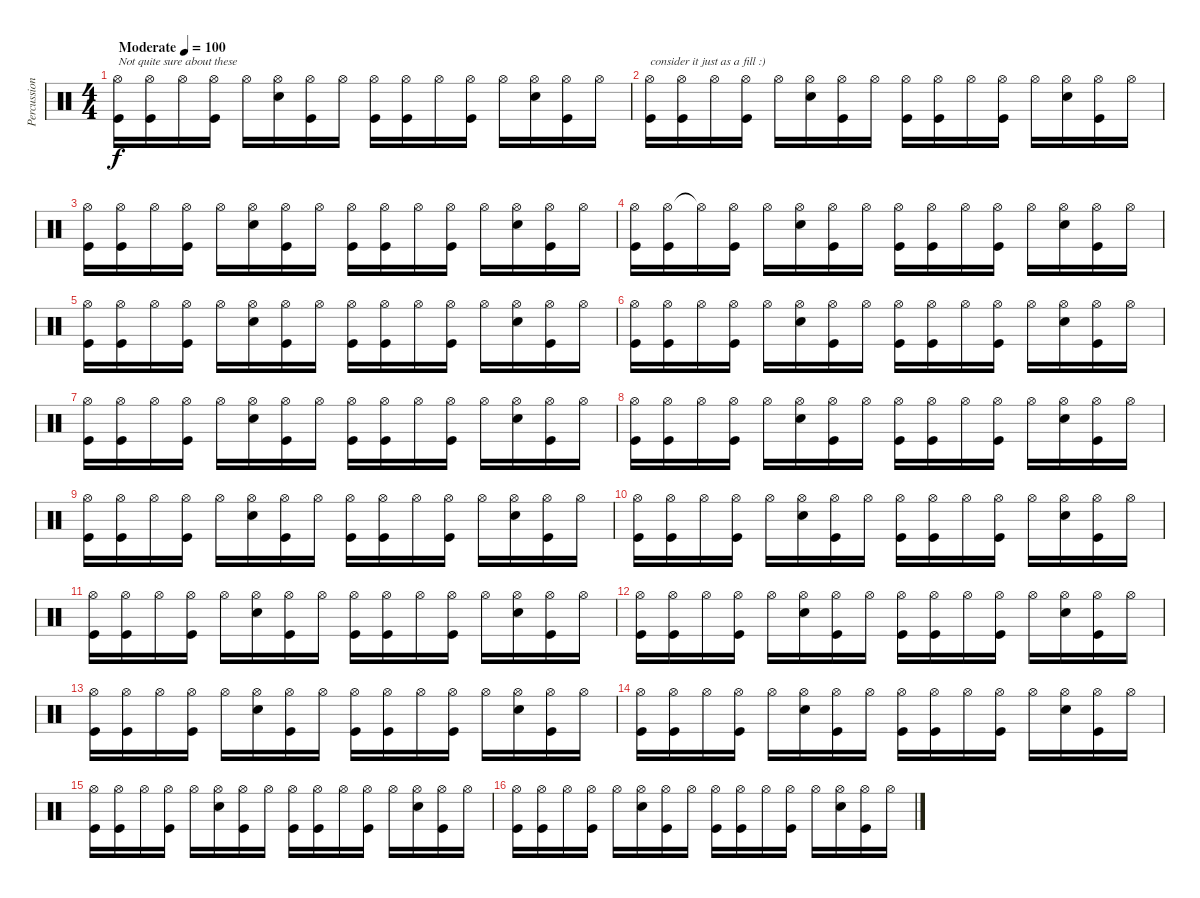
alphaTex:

\track ("Percussion" "Percussion") {instrument percussion}
\staff {score}
\articulation defaults
\ts (4 4)
\tempo (100 "Moderate")
\clef neutral
\ks c
("Hi-Hat (open)" "Kick (hit)").16{txt "Not quite sure about these" dy f} ("Hi-Hat (open)" "Kick (hit)").16 "Hi-Hat (open)".16 ("Hi-Hat (open)" "Kick (hit)").16 "Hi-Hat (open)".16 ("Hi-Hat (open)" "Snare (hit) 2").16 ("Hi-Hat (open)" "Kick (hit)").16 "Hi-Hat (open)".16 ("Hi-Hat (open)" "Kick (hit)").16 ("Hi-Hat (open)" "Kick (hit)").16 "Hi-Hat (open)".16 ("Hi-Hat (open)" "Kick (hit)").16 "Hi-Hat (open)".16 ("Hi-Hat (open)" "Snare (hit) 2").16 ("Hi-Hat (open)" "Kick (hit)").16 "Hi-Hat (open)".16 |
("Hi-Hat (open)" "Kick (hit)").16{txt "consider it just as a fill :)"} ("Hi-Hat (open)" "Kick (hit)").16 "Hi-Hat (open)".16 ("Hi-Hat (open)" "Kick (hit)").16 "Hi-Hat (open)".16 ("Hi-Hat (open)" "Snare (hit) 2").16 ("Hi-Hat (open)" "Kick (hit)").16 "Hi-Hat (open)".16 ("Hi-Hat (open)" "Kick (hit)").16 ("Hi-Hat (open)" "Kick (hit)").16 "Hi-Hat (open)".16 ("Hi-Hat (open)" "Kick (hit)").16 "Hi-Hat (open)".16 ("Hi-Hat (open)" "Snare (hit) 2").16 ("Hi-Hat (open)" "Kick (hit)").16 "Hi-Hat (open)".16 |
("Hi-Hat (open)" "Kick (hit)").16 ("Hi-Hat (open)" "Kick (hit)").16 "Hi-Hat (open)".16 ("Hi-Hat (open)" "Kick (hit)").16 "Hi-Hat (open)".16 ("Hi-Hat (open)" "Snare (hit) 2").16 ("Hi-Hat (open)" "Kick (hit)").16 "Hi-Hat (open)".16 ("Hi-Hat (open)" "Kick (hit)").16 ("Hi-Hat (open)" "Kick (hit)").16 "Hi-Hat (open)".16 ("Hi-Hat (open)" "Kick (hit)").16 "Hi-Hat (open)".16 ("Hi-Hat (open)" "Snare (hit) 2").16 ("Hi-Hat (open)" "Kick (hit)").16 "Hi-Hat (open)".16 |
("Hi-Hat (open)" "Kick (hit)").16 ("Hi-Hat (open)" "Kick (hit)").16 "Hi-Hat (open)"{t}.16 ("Hi-Hat (open)" "Kick (hit)").16 "Hi-Hat (open)".16 ("Hi-Hat (open)" "Snare (hit) 2").16 ("Hi-Hat (open)" "Kick (hit)").16 "Hi-Hat (open)".16 ("Hi-Hat (open)" "Kick (hit)").16 ("Hi-Hat (open)" "Kick (hit)").16 "Hi-Hat (open)".16 ("Hi-Hat (open)" "Kick (hit)").16 "Hi-Hat (open)".16 ("Hi-Hat (open)" "Snare (hit) 2").16 ("Hi-Hat (open)" "Kick (hit)").16 "Hi-Hat (open)".16 |
("Hi-Hat (open)" "Kick (hit)").16 ("Hi-Hat (open)" "Kick (hit)").16 "Hi-Hat (open)".16 ("Hi-Hat (open)" "Kick (hit)").16 "Hi-Hat (open)".16 ("Hi-Hat (open)" "Snare (hit) 2").16 ("Hi-Hat (open)" "Kick (hit)").16 "Hi-Hat (open)".16 ("Hi-Hat (open)" "Kick (hit)").16 ("Hi-Hat (open)" "Kick (hit)").16 "Hi-Hat (open)".16 ("Hi-Hat (open)" "Kick (hit)").16 "Hi-Hat (open)".16 ("Hi-Hat (open)" "Snare (hit) 2").16 ("Hi-Hat (open)" "Kick (hit)").16 "Hi-Hat (open)".16 |
("Hi-Hat (open)" "Kick (hit)").16 ("Hi-Hat (open)" "Kick (hit)").16 "Hi-Hat (open)".16 ("Hi-Hat (open)" "Kick (hit)").16 "Hi-Hat (open)".16 ("Hi-Hat (open)" "Snare (hit) 2").16 ("Hi-Hat (open)" "Kick (hit)").16 "Hi-Hat (open)".16 ("Hi-Hat (open)" "Kick (hit)").16 ("Hi-Hat (open)" "Kick (hit)").16 "Hi-Hat (open)".16 ("Hi-Hat (open)" "Kick (hit)").16 "Hi-Hat (open)".16 ("Hi-Hat (open)" "Snare (hit) 2").16 ("Hi-Hat (open)" "Kick (hit)").16 "Hi-Hat (open)".16 |
("Hi-Hat (open)" "Kick (hit)").16 ("Hi-Hat (open)" "Kick (hit)").16 "Hi-Hat (open)".16 ("Hi-Hat (open)" "Kick (hit)").16 "Hi-Hat (open)".16 ("Hi-Hat (open)" "Snare (hit) 2").16 ("Hi-Hat (open)" "Kick (hit)").16 "Hi-Hat (open)".16 ("Hi-Hat (open)" "Kick (hit)").16 ("Hi-Hat (open)" "Kick (hit)").16 "Hi-Hat (open)".16 ("Hi-Hat (open)" "Kick (hit)").16 "Hi-Hat (open)".16 ("Hi-Hat (open)" "Snare (hit) 2").16 ("Hi-Hat (open)" "Kick (hit)").16 "Hi-Hat (open)".16 |
("Hi-Hat (open)" "Kick (hit)").16 ("Hi-Hat (open)" "Kick (hit)").16 "Hi-Hat (open)".16 ("Hi-Hat (open)" "Kick (hit)").16 "Hi-Hat (open)".16 ("Hi-Hat (open)" "Snare (hit) 2").16 ("Hi-Hat (open)" "Kick (hit)").16 "Hi-Hat (open)".16 ("Hi-Hat (open)" "Kick (hit)").16 ("Hi-Hat (open)" "Kick (hit)").16 "Hi-Hat (open)".16 ("Hi-Hat (open)" "Kick (hit)").16 "Hi-Hat (open)".16 ("Hi-Hat (open)" "Snare (hit) 2").16 ("Hi-Hat (open)" "Kick (hit)").16 "Hi-Hat (open)".16 |
("Hi-Hat (open)" "Kick (hit)").16 ("Hi-Hat (open)" "Kick (hit)").16 "Hi-Hat (open)".16 ("Hi-Hat (open)" "Kick (hit)").16 "Hi-Hat (open)".16 ("Hi-Hat (open)" "Snare (hit) 2").16 ("Hi-Hat (open)" "Kick (hit)").16 "Hi-Hat (open)".16 ("Hi-Hat (open)" "Kick (hit)").16 ("Hi-Hat (open)" "Kick (hit)").16 "Hi-Hat (open)".16 ("Hi-Hat (open)" "Kick (hit)").16 "Hi-Hat (open)".16 ("Hi-Hat (open)" "Snare (hit) 2").16 ("Hi-Hat (open)" "Kick (hit)").16 "Hi-Hat (open)".16 |
("Hi-Hat (open)" "Kick (hit)").16 ("Hi-Hat (open)" "Kick (hit)").16 "Hi-Hat (open)".16 ("Hi-Hat (open)" "Kick (hit)").16 "Hi-Hat (open)".16 ("Hi-Hat (open)" "Snare (hit) 2").16 ("Hi-Hat (open)" "Kick (hit)").16 "Hi-Hat (open)".16 ("Hi-Hat (open)" "Kick (hit)").16 ("Hi-Hat (open)" "Kick (hit)").16 "Hi-Hat (open)".16 ("Hi-Hat (open)" "Kick (hit)").16 "Hi-Hat (open)".16 ("Hi-Hat (open)" "Snare (hit) 2").16 ("Hi-Hat (open)" "Kick (hit)").16 "Hi-Hat (open)".16 |
("Hi-Hat (open)" "Kick (hit)").16 ("Hi-Hat (open)" "Kick (hit)").16 "Hi-Hat (open)".16 ("Hi-Hat (open)" "Kick (hit)").16 "Hi-Hat (open)".16 ("Hi-Hat (open)" "Snare (hit) 2").16 ("Hi-Hat (open)" "Kick (hit)").16 "Hi-Hat (open)".16 ("Hi-Hat (open)" "Kick (hit)").16 ("Hi-Hat (open)" "Kick (hit)").16 "Hi-Hat (open)".16 ("Hi-Hat (open)" "Kick (hit)").16 "Hi-Hat (open)".16 ("Hi-Hat (open)" "Snare (hit) 2").16 ("Hi-Hat (open)" "Kick (hit)").16 "Hi-Hat (open)".16 |
("Hi-Hat (open)" "Kick (hit)").16 ("Hi-Hat (open)" "Kick (hit)").16 "Hi-Hat (open)".16 ("Hi-Hat (open)" "Kick (hit)").16 "Hi-Hat (open)".16 ("Hi-Hat (open)" "Snare (hit) 2").16 ("Hi-Hat (open)" "Kick (hit)").16 "Hi-Hat (open)".16 ("Hi-Hat (open)" "Kick (hit)").16 ("Hi-Hat (open)" "Kick (hit)").16 "Hi-Hat (open)".16 ("Hi-Hat (open)" "Kick (hit)").16 "Hi-Hat (open)".16 ("Hi-Hat (open)" "Snare (hit) 2").16 ("Hi-Hat (open)" "Kick (hit)").16 "Hi-Hat (open)".16 |
("Hi-Hat (open)" "Kick (hit)").16 ("Hi-Hat (open)" "Kick (hit)").16 "Hi-Hat (open)".16 ("Hi-Hat (open)" "Kick (hit)").16 "Hi-Hat (open)".16 ("Hi-Hat (open)" "Snare (hit) 2").16 ("Hi-Hat (open)" "Kick (hit)").16 "Hi-Hat (open)".16 ("Hi-Hat (open)" "Kick (hit)").16 ("Hi-Hat (open)" "Kick (hit)").16 "Hi-Hat (open)".16 ("Hi-Hat (open)" "Kick (hit)").16 "Hi-Hat (open)".16 ("Hi-Hat (open)" "Snare (hit) 2").16 ("Hi-Hat (open)" "Kick (hit)").16 "Hi-Hat (open)".16 |
("Hi-Hat (open)" "Kick (hit)").16 ("Hi-Hat (open)" "Kick (hit)").16 "Hi-Hat (open)".16 ("Hi-Hat (open)" "Kick (hit)").16 "Hi-Hat (open)".16 ("Hi-Hat (open)" "Snare (hit) 2").16 ("Hi-Hat (open)" "Kick (hit)").16 "Hi-Hat (open)".16 ("Hi-Hat (open)" "Kick (hit)").16 ("Hi-Hat (open)" "Kick (hit)").16 "Hi-Hat (open)".16 ("Hi-Hat (open)" "Kick (hit)").16 "Hi-Hat (open)".16 ("Hi-Hat (open)" "Snare (hit) 2").16 ("Hi-Hat (open)" "Kick (hit)").16 "Hi-Hat (open)".16 |
("Hi-Hat (open)" "Kick (hit)").16 ("Hi-Hat (open)" "Kick (hit)").16 "Hi-Hat (open)".16 ("Hi-Hat (open)" "Kick (hit)").16 "Hi-Hat (open)".16 ("Hi-Hat (open)" "Snare (hit) 2").16 ("Hi-Hat (open)" "Kick (hit)").16 "Hi-Hat (open)".16 ("Hi-Hat (open)" "Kick (hit)").16 ("Hi-Hat (open)" "Kick (hit)").16 "Hi-Hat (open)".16 ("Hi-Hat (open)" "Kick (hit)").16 "Hi-Hat (open)".16 ("Hi-Hat (open)" "Snare (hit) 2").16 ("Hi-Hat (open)" "Kick (hit)").16 "Hi-Hat (open)".16 |
("Hi-Hat (open)" "Kick (hit)").16 ("Hi-Hat (open)" "Kick (hit)").16 "Hi-Hat (open)".16 ("Hi-Hat (open)" "Kick (hit)").16 "Hi-Hat (open)".16 ("Hi-Hat (open)" "Snare (hit) 2").16 ("Hi-Hat (open)" "Kick (hit)").16 "Hi-Hat (open)".16 ("Hi-Hat (open)" "Kick (hit)").16 ("Hi-Hat (open)" "Kick (hit)").16 "Hi-Hat (open)".16 ("Hi-Hat (open)" "Kick (hit)").16 "Hi-Hat (open)".16 ("Hi-Hat (open)" "Snare (hit) 2").16 ("Hi-Hat (open)" "Kick (hit)").16 "Hi-Hat (open)".16
